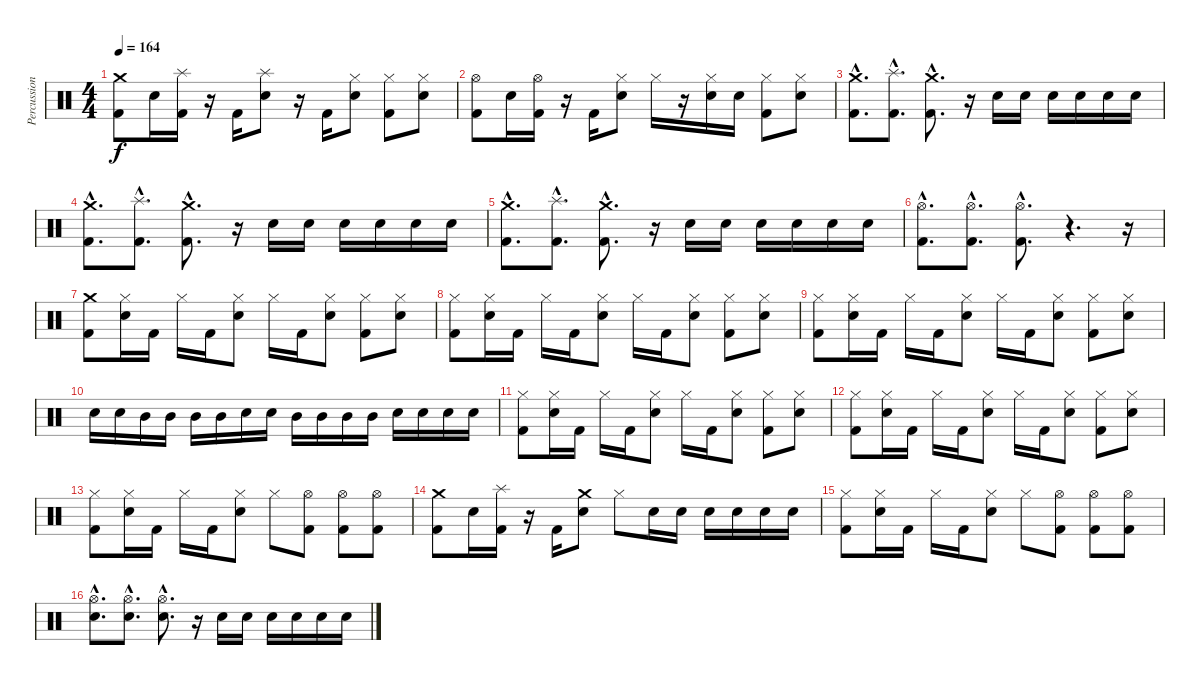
\track ("Percussion" "Percussion") {instrument percussion}
\staff {score}
\articulation defaults
\ts (4 4)
\tempo 164
\clef neutral
\ks c
("Crash medium (hit)" "Kick (hit) 2").8{dy f} "Electric Snare (hit)".16 ("Splash (hit)" "Kick (hit) 2").16 r.16 "Kick (hit) 2".16 ("Splash (hit)" "Electric Snare (hit)").8 r.16 "Kick (hit) 2".16 ("Hi-Hat (closed)" "Electric Snare (hit)").8 ("Hi-Hat (closed)" "Kick (hit) 2").8 ("Hi-Hat (closed)" "Electric Snare (hit)").8 |
("Hi-Hat (open)" "Kick (hit) 2").8 "Electric Snare (hit)".16 ("Hi-Hat (open)" "Kick (hit) 2").16 r.16 "Kick (hit) 2".16 ("Hi-Hat (closed)" "Electric Snare (hit)").8 "Hi-Hat (closed)".16 r.16 ("Hi-Hat (closed)" "Electric Snare (hit)").16 "Electric Snare (hit)".16 ("Hi-Hat (closed)" "Kick (hit) 2").8 ("Hi-Hat (closed)" "Electric Snare (hit)").8 |
("Crash medium (hit)"{hac} "Kick (hit) 2"{hac}).8{d} ("Splash (hit)"{hac} "Kick (hit) 2"{hac}).8{d} ("Crash medium (hit)"{hac} "Kick (hit) 2"{hac}).8{d} r.16 "Electric Snare (hit)".16 "Electric Snare (hit)".16 "Electric Snare (hit)".16 "Electric Snare (hit)".16 "Electric Snare (hit)".16 "Electric Snare (hit)".16 |
("Crash medium (hit)"{hac} "Kick (hit) 2"{hac}).8{d} ("Splash (hit)"{hac} "Kick (hit) 2"{hac}).8{d} ("Crash medium (hit)"{hac} "Kick (hit) 2"{hac}).8{d} r.16 "Electric Snare (hit)".16 "Electric Snare (hit)".16 "Electric Snare (hit)".16 "Electric Snare (hit)".16 "Electric Snare (hit)".16 "Electric Snare (hit)".16 |
("Crash medium (hit)"{hac} "Kick (hit) 2"{hac}).8{d} ("Splash (hit)"{hac} "Kick (hit) 2"{hac}).8{d} ("Crash medium (hit)"{hac} "Kick (hit) 2"{hac}).8{d} r.16 "Electric Snare (hit)".16 "Electric Snare (hit)".16 "Electric Snare (hit)".16 "Electric Snare (hit)".16 "Electric Snare (hit)".16 "Electric Snare (hit)".16 |
("Hi-Hat (open)"{hac} "Kick (hit) 2"{hac}).8{d} ("Hi-Hat (open)"{hac} "Kick (hit) 2"{hac}).8{d} ("Hi-Hat (open)"{hac} "Kick (hit) 2"{hac}).8{d} r.4{d} r.16 |
("Crash medium (hit)" "Kick (hit) 2").8 ("Hi-Hat (closed)" "Electric Snare (hit)").16 "Kick (hit) 2".16 "Hi-Hat (closed)".16 "Kick (hit) 2".16 ("Hi-Hat (closed)" "Electric Snare (hit)").8 "Hi-Hat (closed)".16 "Kick (hit) 2".16 ("Hi-Hat (closed)" "Electric Snare (hit)").8 ("Hi-Hat (closed)" "Kick (hit) 2").8 ("Hi-Hat (closed)" "Electric Snare (hit)").8 |
("Hi-Hat (closed)" "Kick (hit) 2").8 ("Hi-Hat (closed)" "Electric Snare (hit)").16 "Kick (hit) 2".16 "Hi-Hat (closed)".16 "Kick (hit) 2".16 ("Hi-Hat (closed)" "Electric Snare (hit)").8 "Hi-Hat (closed)".16 "Kick (hit) 2".16 ("Hi-Hat (closed)" "Electric Snare (hit)").8 ("Hi-Hat (closed)" "Kick (hit) 2").8 ("Hi-Hat (closed)" "Electric Snare (hit)").8 |
("Hi-Hat (closed)" "Kick (hit) 2").8 ("Hi-Hat (closed)" "Electric Snare (hit)").16 "Kick (hit) 2".16 "Hi-Hat (closed)".16 "Kick (hit) 2".16 ("Hi-Hat (closed)" "Electric Snare (hit)").8 "Hi-Hat (closed)".16 "Kick (hit) 2".16 ("Hi-Hat (closed)" "Electric Snare (hit)").8 ("Hi-Hat (closed)" "Kick (hit) 2").8 ("Hi-Hat (closed)" "Electric Snare (hit)").8 |
"Electric Snare (hit)".16 "Electric Snare (hit)".16 "Mid Tom (hit)".16 "Mid Tom (hit)".16 "Mid Tom (hit)".16 "Mid Tom (hit)".16 "Electric Snare (hit)".16 "Electric Snare (hit)".16 "Mid Tom (hit)".16 "Mid Tom (hit)".16 "Mid Tom (hit)".16 "Mid Tom (hit)".16 "Electric Snare (hit)".16 "Electric Snare (hit)".16 "Electric Snare (hit)".16 "Electric Snare (hit)".16 |
("Hi-Hat (closed)" "Kick (hit) 2").8 ("Hi-Hat (closed)" "Electric Snare (hit)").16 "Kick (hit) 2".16 "Hi-Hat (closed)".16 "Kick (hit) 2".16 ("Hi-Hat (closed)" "Electric Snare (hit)").8 "Hi-Hat (closed)".16 "Kick (hit) 2".16 ("Hi-Hat (closed)" "Electric Snare (hit)").8 ("Hi-Hat (closed)" "Kick (hit) 2").8 ("Hi-Hat (closed)" "Electric Snare (hit)").8 |
("Hi-Hat (closed)" "Kick (hit) 2").8 ("Hi-Hat (closed)" "Electric Snare (hit)").16 "Kick (hit) 2".16 "Hi-Hat (closed)".16 "Kick (hit) 2".16 ("Hi-Hat (closed)" "Electric Snare (hit)").8 "Hi-Hat (closed)".16 "Kick (hit) 2".16 ("Hi-Hat (closed)" "Electric Snare (hit)").8 ("Hi-Hat (closed)" "Kick (hit) 2").8 ("Hi-Hat (closed)" "Electric Snare (hit)").8 |
("Hi-Hat (closed)" "Kick (hit) 2").8 ("Hi-Hat (closed)" "Electric Snare (hit)").16 "Kick (hit) 2".16 "Hi-Hat (closed)".16 "Kick (hit) 2".16 ("Hi-Hat (closed)" "Electric Snare (hit)").8 "Hi-Hat (closed)".8 ("Hi-Hat (open)" "Kick (hit) 2").8 ("Hi-Hat (open)" "Kick (hit) 2").8 ("Hi-Hat (open)" "Kick (hit) 2").8 |
("Crash medium (hit)" "Kick (hit) 2").8 "Electric Snare (hit)".16 ("Splash (hit)" "Kick (hit) 2").16 r.16 "Kick (hit) 2".16 ("Crash medium (hit)" "Electric Snare (hit)").8 "Hi-Hat (closed)".8 "Electric Snare (hit)".16 "Electric Snare (hit)".16 "Electric Snare (hit)".16 "Electric Snare (hit)".16 "Electric Snare (hit)".16 "Electric Snare (hit)".16 |
("Hi-Hat (closed)" "Kick (hit) 2").8 ("Hi-Hat (closed)" "Electric Snare (hit)").16 "Kick (hit) 2".16 "Hi-Hat (closed)".16 "Kick (hit) 2".16 ("Hi-Hat (closed)" "Electric Snare (hit)").8 "Hi-Hat (closed)".8 ("Hi-Hat (open)" "Kick (hit) 2").8 ("Hi-Hat (open)" "Kick (hit) 2").8 ("Hi-Hat (open)" "Kick (hit) 2").8 |
("Hi-Hat (open)"{hac} "Electric Snare (hit)"{hac}).8{d} ("Hi-Hat (open)"{hac} "Electric Snare (hit)"{hac}).8{d} ("Hi-Hat (open)"{hac} "Electric Snare (hit)"{hac}).8{d} r.16 "Electric Snare (hit)".16 "Electric Snare (hit)".16 "Electric Snare (hit)".16 "Electric Snare (hit)".16 "Electric Snare (hit)".16 "Electric Snare (hit)".16
